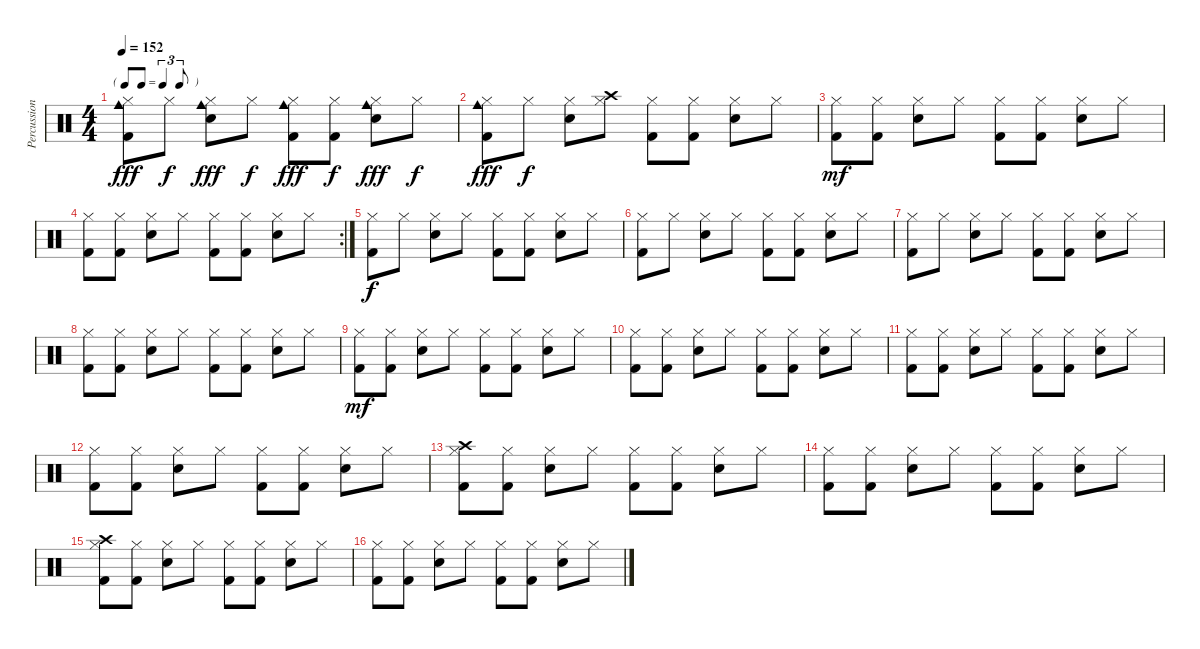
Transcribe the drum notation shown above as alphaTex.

\track ("Percussion" "Percussion") {instrument percussion}
\staff {score}
\articulation defaults
\ts (4 4)
\tf triplet8th
\tempo 152
\clef neutral
\ks c
("Cowbell medium (hit)" "Hi-Hat (closed)" "Kick (hit) 2").8{dy fff} "Hi-Hat (closed)".8{dy f} ("Cowbell medium (hit)" "Hi-Hat (closed)" "Electric Snare (hit)").8{dy fff} "Hi-Hat (closed)".8{dy f} ("Cowbell medium (hit)" "Hi-Hat (closed)" "Kick (hit) 2").8{dy fff} ("Hi-Hat (closed)" "Kick (hit) 2").8{dy f} ("Cowbell medium (hit)" "Hi-Hat (closed)" "Electric Snare (hit)").8{dy fff} "Hi-Hat (closed)".8{dy f} |
("Cowbell medium (hit)" "Hi-Hat (closed)" "Kick (hit) 2").8{dy fff} "Hi-Hat (closed)".8{dy f} ("Hi-Hat (closed)" "Electric Snare (hit)").8 ("Crash high (hit)" "Hi-Hat (closed)").8 ("Hi-Hat (closed)" "Kick (hit) 2").8 ("Hi-Hat (closed)" "Kick (hit) 2").8 ("Hi-Hat (closed)" "Electric Snare (hit)").8 "Hi-Hat (closed)".8 |
("Hi-Hat (closed)" "Kick (hit) 2").8{dy mf} ("Hi-Hat (closed)" "Kick (hit) 2").8 ("Hi-Hat (closed)" "Electric Snare (hit)").8 "Hi-Hat (closed)".8 ("Hi-Hat (closed)" "Kick (hit) 2").8 ("Hi-Hat (closed)" "Kick (hit) 2").8 ("Hi-Hat (closed)" "Electric Snare (hit)").8 "Hi-Hat (closed)".8 |
\rc 2
("Hi-Hat (closed)" "Kick (hit) 2").8 ("Hi-Hat (closed)" "Kick (hit) 2").8 ("Hi-Hat (closed)" "Electric Snare (hit)").8 "Hi-Hat (closed)".8 ("Hi-Hat (closed)" "Kick (hit) 2").8 ("Hi-Hat (closed)" "Kick (hit) 2").8 ("Hi-Hat (closed)" "Electric Snare (hit)").8 "Hi-Hat (closed)".8 |
("Hi-Hat (closed)" "Kick (hit) 2").8{dy f} "Hi-Hat (closed)".8 ("Hi-Hat (closed)" "Electric Snare (hit)").8 "Hi-Hat (closed)".8 ("Hi-Hat (closed)" "Kick (hit) 2").8 ("Hi-Hat (closed)" "Kick (hit) 2").8 ("Hi-Hat (closed)" "Electric Snare (hit)").8 "Hi-Hat (closed)".8 |
("Hi-Hat (closed)" "Kick (hit) 2").8 "Hi-Hat (closed)".8 ("Hi-Hat (closed)" "Electric Snare (hit)").8 "Hi-Hat (closed)".8 ("Hi-Hat (closed)" "Kick (hit) 2").8 ("Hi-Hat (closed)" "Kick (hit) 2").8 ("Hi-Hat (closed)" "Electric Snare (hit)").8 "Hi-Hat (closed)".8 |
("Hi-Hat (closed)" "Kick (hit) 2").8 "Hi-Hat (closed)".8 ("Hi-Hat (closed)" "Electric Snare (hit)").8 "Hi-Hat (closed)".8 ("Hi-Hat (closed)" "Kick (hit) 2").8 ("Hi-Hat (closed)" "Kick (hit) 2").8 ("Hi-Hat (closed)" "Electric Snare (hit)").8 "Hi-Hat (closed)".8 |
("Hi-Hat (closed)" "Kick (hit) 2").8 ("Hi-Hat (closed)" "Kick (hit) 2").8 ("Hi-Hat (closed)" "Electric Snare (hit)").8 "Hi-Hat (closed)".8 ("Hi-Hat (closed)" "Kick (hit) 2").8 ("Hi-Hat (closed)" "Kick (hit) 2").8 ("Hi-Hat (closed)" "Electric Snare (hit)").8 "Hi-Hat (closed)".8 |
("Hi-Hat (closed)" "Kick (hit) 2").8{dy mf} ("Hi-Hat (closed)" "Kick (hit) 2").8 ("Hi-Hat (closed)" "Electric Snare (hit)").8 "Hi-Hat (closed)".8 ("Hi-Hat (closed)" "Kick (hit) 2").8 ("Hi-Hat (closed)" "Kick (hit) 2").8 ("Hi-Hat (closed)" "Electric Snare (hit)").8 "Hi-Hat (closed)".8 |
("Hi-Hat (closed)" "Kick (hit) 2").8 ("Hi-Hat (closed)" "Kick (hit) 2").8 ("Hi-Hat (closed)" "Electric Snare (hit)").8 "Hi-Hat (closed)".8 ("Hi-Hat (closed)" "Kick (hit) 2").8 ("Hi-Hat (closed)" "Kick (hit) 2").8 ("Hi-Hat (closed)" "Electric Snare (hit)").8 "Hi-Hat (closed)".8 |
("Hi-Hat (closed)" "Kick (hit) 2").8 ("Hi-Hat (closed)" "Kick (hit) 2").8 ("Hi-Hat (closed)" "Electric Snare (hit)").8 "Hi-Hat (closed)".8 ("Hi-Hat (closed)" "Kick (hit) 2").8 ("Hi-Hat (closed)" "Kick (hit) 2").8 ("Hi-Hat (closed)" "Electric Snare (hit)").8 "Hi-Hat (closed)".8 |
("Hi-Hat (closed)" "Kick (hit) 2").8 ("Hi-Hat (closed)" "Kick (hit) 2").8 ("Hi-Hat (closed)" "Electric Snare (hit)").8 "Hi-Hat (closed)".8 ("Hi-Hat (closed)" "Kick (hit) 2").8 ("Hi-Hat (closed)" "Kick (hit) 2").8 ("Hi-Hat (closed)" "Electric Snare (hit)").8 "Hi-Hat (closed)".8 |
("Crash high (hit)" "Hi-Hat (closed)" "Kick (hit) 2").8 ("Hi-Hat (closed)" "Kick (hit) 2").8 ("Hi-Hat (closed)" "Electric Snare (hit)").8 "Hi-Hat (closed)".8 ("Hi-Hat (closed)" "Kick (hit) 2").8 ("Hi-Hat (closed)" "Kick (hit) 2").8 ("Hi-Hat (closed)" "Electric Snare (hit)").8 "Hi-Hat (closed)".8 |
("Hi-Hat (closed)" "Kick (hit) 2").8 ("Hi-Hat (closed)" "Kick (hit) 2").8 ("Hi-Hat (closed)" "Electric Snare (hit)").8 "Hi-Hat (closed)".8 ("Hi-Hat (closed)" "Kick (hit) 2").8 ("Hi-Hat (closed)" "Kick (hit) 2").8 ("Hi-Hat (closed)" "Electric Snare (hit)").8 "Hi-Hat (closed)".8 |
("Crash high (hit)" "Hi-Hat (closed)" "Kick (hit) 2").8 ("Hi-Hat (closed)" "Kick (hit) 2").8 ("Hi-Hat (closed)" "Electric Snare (hit)").8 "Hi-Hat (closed)".8 ("Hi-Hat (closed)" "Kick (hit) 2").8 ("Hi-Hat (closed)" "Kick (hit) 2").8 ("Hi-Hat (closed)" "Electric Snare (hit)").8 "Hi-Hat (closed)".8 |
("Hi-Hat (closed)" "Kick (hit) 2").8 ("Hi-Hat (closed)" "Kick (hit) 2").8 ("Hi-Hat (closed)" "Electric Snare (hit)").8 "Hi-Hat (closed)".8 ("Hi-Hat (closed)" "Kick (hit) 2").8 ("Hi-Hat (closed)" "Kick (hit) 2").8 ("Hi-Hat (closed)" "Electric Snare (hit)").8 "Hi-Hat (closed)".8
